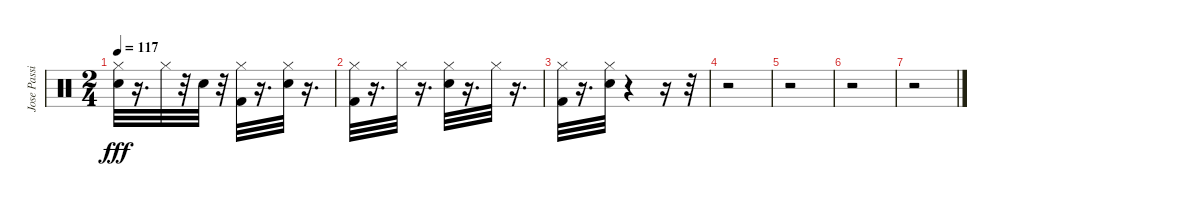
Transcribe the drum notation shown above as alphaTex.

\track ("Jose Passilas-drums" "Jose Passi") {instrument percussion}
\staff {score}
\articulation defaults
\ts (2 4)
\tempo 117
\clef neutral
\ks c
("Hi-Hat (closed)" "Electric Snare (hit)").32{dy fff} r.16{d} "Hi-Hat (closed)".32 r.32 "Electric Snare (hit)".32 r.32 ("Hi-Hat (closed)" "Kick (hit) 2").32 r.16{d} ("Hi-Hat (closed)" "Electric Snare (hit)").32 r.16{d} |
("Hi-Hat (closed)" "Kick (hit) 2").32 r.16{d} "Hi-Hat (closed)".32 r.16{d} ("Hi-Hat (closed)" "Electric Snare (hit)").32 r.16{d} "Hi-Hat (closed)".32 r.16{d} |
("Hi-Hat (closed)" "Kick (hit) 2").32 r.16{d} ("Hi-Hat (closed)" "Electric Snare (hit)").32 r.4 r.16 r.32 |
r.2 |
r.2 |
r.2 |
r.2
